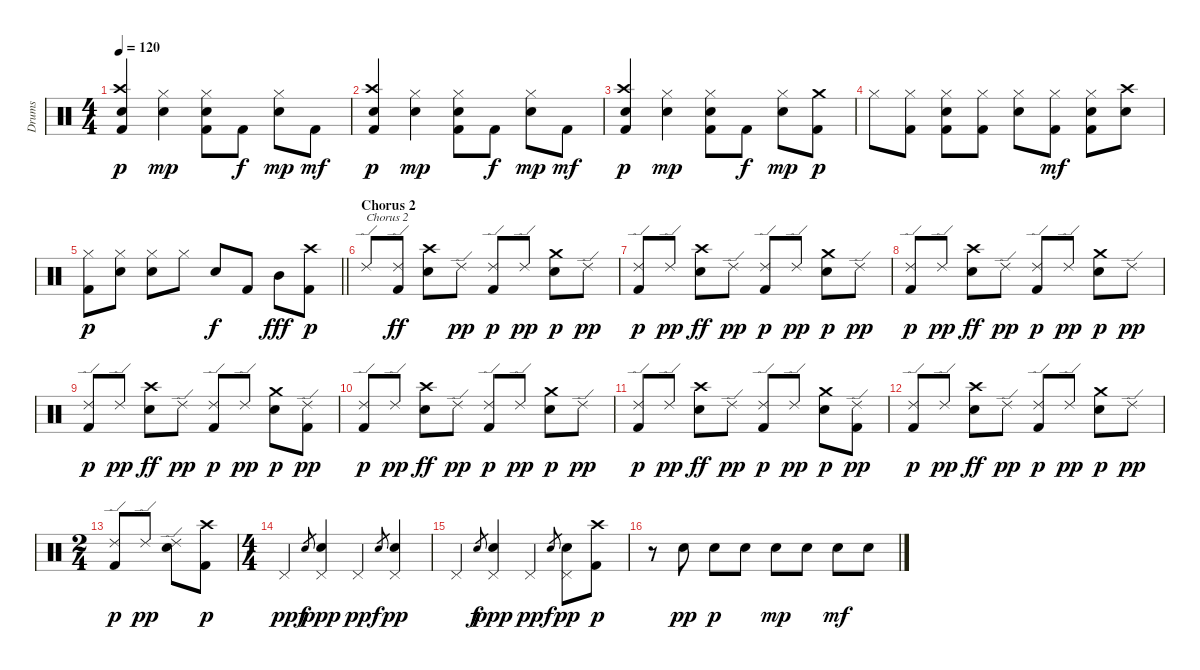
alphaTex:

\track ("Drums" "Drums") {instrument percussion}
\staff {score}
\articulation defaults
\ts (4 4)
\tempo 120
\clef neutral
\ks c
("Kick (hit) 2" "Crash high (hit)" "Electric Snare (hit)").4{dy p} ("Electric Snare (hit)" "Hi-Hat (closed)").4{dy mp} ("Kick (hit) 2" "Hi-Hat (closed)" "Electric Snare (hit)").8 "Kick (hit) 2".8{dy f} ("Electric Snare (hit)" "Hi-Hat (closed)").8{dy mp} "Kick (hit) 2".8{dy mf} |
("Kick (hit) 2" "Crash high (hit)" "Electric Snare (hit)").4{dy p} ("Electric Snare (hit)" "Hi-Hat (closed)").4{dy mp} ("Kick (hit) 2" "Hi-Hat (closed)" "Electric Snare (hit)").8 "Kick (hit) 2".8{dy f} ("Electric Snare (hit)" "Hi-Hat (closed)").8{dy mp} "Kick (hit) 2".8{dy mf} |
("Kick (hit) 2" "Crash high (hit)" "Electric Snare (hit)").4{dy p} ("Electric Snare (hit)" "Hi-Hat (closed)").4{dy mp} ("Kick (hit) 2" "Hi-Hat (closed)" "Electric Snare (hit)").8 "Kick (hit) 2".8{dy f} ("Electric Snare (hit)" "Hi-Hat (closed)").8{dy mp} ("Kick (hit) 2" "Crash medium (hit)").8{dy p} |
"Hi-Hat (closed)".8 ("Hi-Hat (closed)" "Kick (hit) 2").8 ("Hi-Hat (closed)" "Electric Snare (hit)" "Kick (hit) 2").8 ("Hi-Hat (closed)" "Kick (hit) 2").8 ("Hi-Hat (closed)" "Electric Snare (hit)").8 ("Hi-Hat (closed)" "Kick (hit) 2").8{dy mf} ("Hi-Hat (closed)" "Kick (hit) 2" "Electric Snare (hit)").8 ("Crash high (hit)" "Electric Snare (hit)").8 |
\barLineRight lightlight
("Hi-Hat (closed)" "Kick (hit) 2").8{dy p} ("Hi-Hat (closed)" "Electric Snare (hit)").8 ("Hi-Hat (closed)" "Electric Snare (hit)").8 "Hi-Hat (closed)".8 "Electric Snare (hit)".8{dy f} "Kick (hit) 2".8 "Mid Tom (hit)".8{dy fff} ("Kick (hit) 2" "Crash high (hit)").8{dy p} |
\section ("" "Chorus 2")
"Ride (edge) 2".8{txt "Chorus 2"} ("Ride (edge) 2" "Kick (hit) 2").8{dy ff} ("Crash high (hit)" "Electric Snare (hit)").8 "Ride (edge) 2".8{dy pp} ("Kick (hit) 2" "Ride (edge) 2").8{dy p} "Ride (edge) 2".8{dy pp} ("Electric Snare (hit)" "Crash medium (hit)").8{dy p} "Ride (edge) 2".8{dy pp} |
("Ride (edge) 2" "Kick (hit) 2").8{dy p} "Ride (edge) 2".8{dy pp} ("Crash high (hit)" "Electric Snare (hit)").8{dy ff} "Ride (edge) 2".8{dy pp} ("Kick (hit) 2" "Ride (edge) 2").8{dy p} "Ride (edge) 2".8{dy pp} ("Electric Snare (hit)" "Crash medium (hit)").8{dy p} "Ride (edge) 2".8{dy pp} |
("Ride (edge) 2" "Kick (hit) 2").8{dy p} "Ride (edge) 2".8{dy pp} ("Crash high (hit)" "Electric Snare (hit)").8{dy ff} "Ride (edge) 2".8{dy pp} ("Kick (hit) 2" "Ride (edge) 2").8{dy p} "Ride (edge) 2".8{dy pp} ("Electric Snare (hit)" "Crash medium (hit)").8{dy p} "Ride (edge) 2".8{dy pp} |
("Ride (edge) 2" "Kick (hit) 2").8{dy p} "Ride (edge) 2".8{dy pp} ("Crash high (hit)" "Electric Snare (hit)").8{dy ff} "Ride (edge) 2".8{dy pp} ("Kick (hit) 2" "Ride (edge) 2").8{dy p} "Ride (edge) 2".8{dy pp} ("Electric Snare (hit)" "Crash medium (hit)").8{dy p} ("Ride (edge) 2" "Kick (hit) 2").8{dy pp} |
("Ride (edge) 2" "Kick (hit) 2").8{dy p} "Ride (edge) 2".8{dy pp} ("Crash high (hit)" "Electric Snare (hit)").8{dy ff} "Ride (edge) 2".8{dy pp} ("Kick (hit) 2" "Ride (edge) 2").8{dy p} "Ride (edge) 2".8{dy pp} ("Electric Snare (hit)" "Crash medium (hit)").8{dy p} "Ride (edge) 2".8{dy pp} |
("Ride (edge) 2" "Kick (hit) 2").8{dy p} "Ride (edge) 2".8{dy pp} ("Crash high (hit)" "Electric Snare (hit)").8{dy ff} "Ride (edge) 2".8{dy pp} ("Kick (hit) 2" "Ride (edge) 2").8{dy p} "Ride (edge) 2".8{dy pp} ("Electric Snare (hit)" "Crash medium (hit)").8{dy p} ("Ride (edge) 2" "Kick (hit) 2").8{dy pp} |
("Ride (edge) 2" "Kick (hit) 2").8{dy p} "Ride (edge) 2".8{dy pp} ("Crash high (hit)" "Electric Snare (hit)").8{dy ff} "Ride (edge) 2".8{dy pp} ("Kick (hit) 2" "Ride (edge) 2").8{dy p} "Ride (edge) 2".8{dy pp} ("Electric Snare (hit)" "Crash medium (hit)").8{dy p} "Ride (edge) 2".8{dy pp} |
\ts (2 4)
("Kick (hit) 2" "Ride (edge) 2").8{dy p} "Ride (edge) 2".8{dy pp} ("Electric Snare (hit)" "Ride (edge) 2").8 ("Crash high (hit)" "Kick (hit) 2").8{dy p} |
\ts (4 4)
"Pedal Hi-Hat (hit)".4{dy pp} "Electric Snare (hit)".8{gr dy f} ("Pedal Hi-Hat (hit)" "Electric Snare (hit)").4{dy ppp} "Pedal Hi-Hat (hit)".4{dy pp} "Electric Snare (hit)".8{gr dy f} ("Pedal Hi-Hat (hit)" "Electric Snare (hit)").4{dy pp} |
"Pedal Hi-Hat (hit)".4 "Electric Snare (hit)".8{gr dy f} ("Pedal Hi-Hat (hit)" "Electric Snare (hit)").4{dy ppp} "Pedal Hi-Hat (hit)".4{dy pp} "Electric Snare (hit)".8{gr dy f} ("Pedal Hi-Hat (hit)" "Electric Snare (hit)").8{dy pp} ("Kick (hit) 2" "Crash high (hit)").8{dy p} |
r.8 "Electric Snare (hit)".8{dy pp} "Electric Snare (hit)".8{dy p} "Electric Snare (hit)".8 "Electric Snare (hit)".8{dy mp} "Electric Snare (hit)".8 "Electric Snare (hit)".8{dy mf} "Electric Snare (hit)".8
